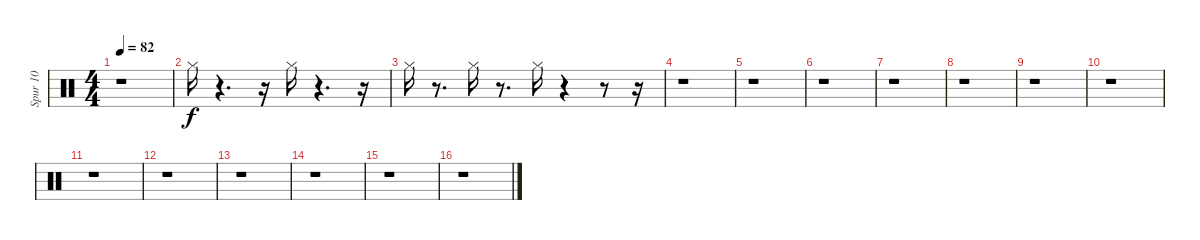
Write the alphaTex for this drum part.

\track ("Spur 10" "Spur 10") {instrument percussion}
\staff {score}
\articulation defaults
\ts (4 4)
\tempo 82
\clef neutral
\ks c
r.1{dy f} |
"Hi-Hat (closed)".16 r.4{d} r.16 "Hi-Hat (closed)".16 r.4{d} r.16 |
"Hi-Hat (closed)".16 r.8{d} "Hi-Hat (closed)".16 r.8{d} "Hi-Hat (closed)".16 r.4 r.8 r.16 |
r.1 |
r.1 |
r.1 |
r.1 |
r.1 |
r.1 |
r.1 |
r.1 |
r.1 |
r.1 |
r.1 |
r.1 |
r.1
